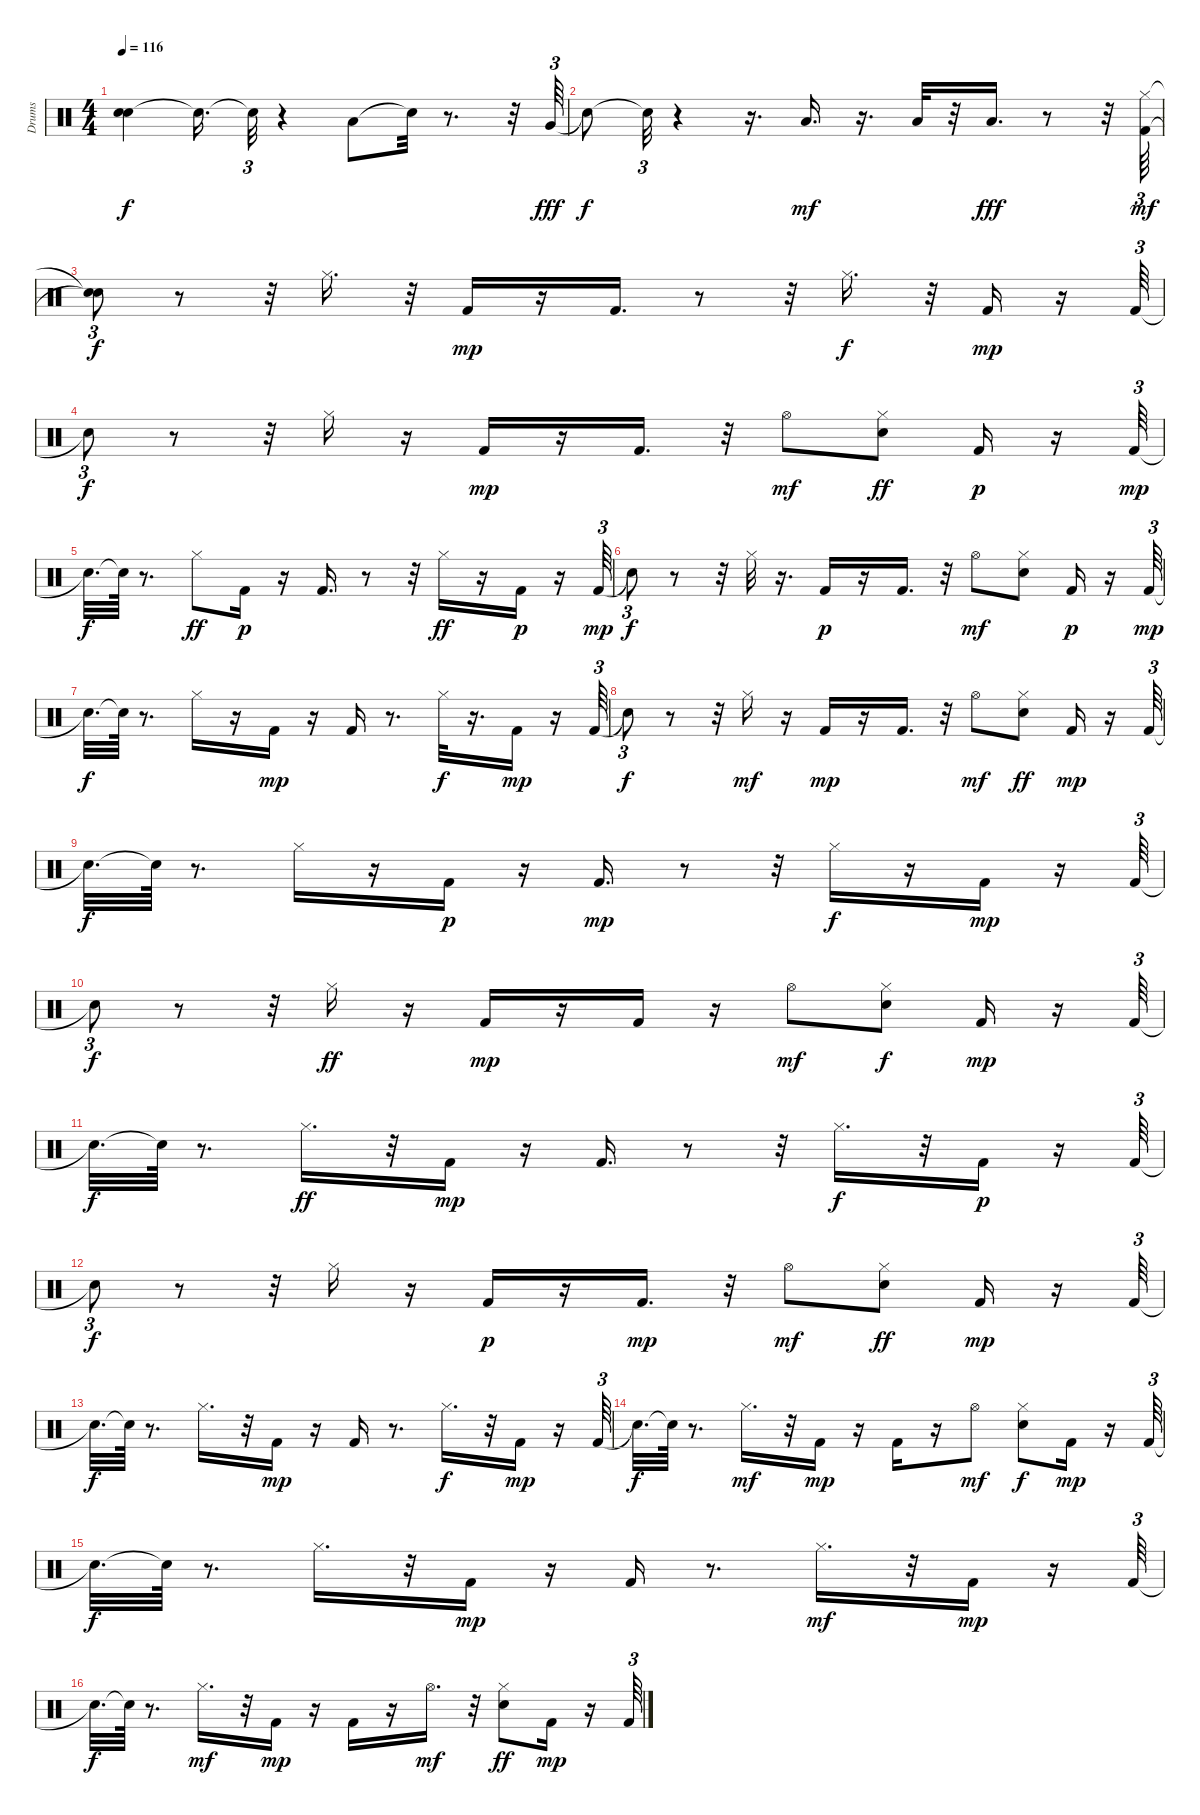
\track ("Drums" "Drums") {instrument percussion}
\staff {score}
\articulation defaults
\ts (4 4)
\tempo 116
\clef neutral
\ks c
("Snare (hit)"{t} "Snare (hit)"{t}).4{dy f} "Snare (hit)"{t}.16{d} "Snare (hit)"{t}.32{tu (3 2)} r.4 "Low Tom (hit)".8 "Snare (hit)"{t}.32 r.8{d} r.32 "Very Low Tom (hit)".64{tu (3 2) dy fff} |
"Snare (hit)"{t}.8{dy f} "Snare (hit)"{t}.32{tu (3 2)} r.4 r.16{d} "Low Floor Tom (hit)".16{d dy mf} r.16{d} "Low Floor Tom (hit)".32 r.32 "Low Floor Tom (hit)".16{d dy fff} r.8 r.32 ("Kick (hit) 2" "Hi-Hat (closed)").64{tu (3 2) dy mf} |
("Snare (hit)"{t} "Snare (hit)"{t}).8{tu (3 2) dy f} r.8 r.32 "Hi-Hat (closed)".16{d} r.32 "Kick (hit) 2".16{dy mp} r.16 "Kick (hit) 2".16{d} r.8 r.32 "Hi-Hat (closed)".16{d dy f} r.32 "Kick (hit) 2".16{dy mp} r.16 "Kick (hit) 2".64{tu (3 2)} |
"Snare (hit)"{t}.8{tu (3 2) dy f} r.8 r.32 "Hi-Hat (closed)".16 r.16 "Kick (hit) 2".16{dy mp} r.16 "Kick (hit) 2".16{d} r.32 "Hi-Hat (open)".8{dy mf} ("Electric Snare (hit)" "Hi-Hat (closed)").8{dy ff} "Kick (hit) 2".16{dy p} r.16 "Kick (hit) 2".64{tu (3 2) dy mp} |
"Snare (hit)"{t}.32{d dy f} "Snare (hit)"{t}.64 r.8{d} "Hi-Hat (closed)".8{dy ff} "Kick (hit) 2".16{dy p} r.16 "Kick (hit) 2".16{d} r.8 r.32 "Hi-Hat (closed)".16{dy ff} r.16 "Kick (hit) 2".16{dy p} r.16 "Kick (hit) 2".64{tu (3 2) dy mp} |
"Snare (hit)"{t}.8{tu (3 2) dy f} r.8 r.32 "Hi-Hat (closed)".32 r.16{d} "Kick (hit) 2".16{dy p} r.16 "Kick (hit) 2".16{d} r.32 "Hi-Hat (open)".8{dy mf} ("Electric Snare (hit)" "Hi-Hat (closed)").8 "Kick (hit) 2".16{dy p} r.16 "Kick (hit) 2".64{tu (3 2) dy mp} |
"Snare (hit)"{t}.32{d dy f} "Snare (hit)"{t}.64 r.8{d} "Hi-Hat (closed)".16 r.16 "Kick (hit) 2".16{dy mp} r.16 "Kick (hit) 2".16 r.8{d} "Hi-Hat (closed)".32{dy f} r.16{d} "Kick (hit) 2".16{dy mp} r.16 "Kick (hit) 2".64{tu (3 2)} |
"Snare (hit)"{t}.8{tu (3 2) dy f} r.8 r.32 "Hi-Hat (closed)".16{dy mf} r.16 "Kick (hit) 2".16{dy mp} r.16 "Kick (hit) 2".16{d} r.32 "Hi-Hat (open)".8{dy mf} ("Hi-Hat (closed)" "Electric Snare (hit)").8{dy ff} "Kick (hit) 2".16{dy mp} r.16 "Kick (hit) 2".64{tu (3 2)} |
"Snare (hit)"{t}.32{d dy f} "Snare (hit)"{t}.64 r.8{d} "Hi-Hat (closed)".16 r.16 "Kick (hit) 2".16{dy p} r.16 "Kick (hit) 2".16{d dy mp} r.8 r.32 "Hi-Hat (closed)".16{dy f} r.16 "Kick (hit) 2".16{dy mp} r.16 "Kick (hit) 2".64{tu (3 2)} |
"Snare (hit)"{t}.8{tu (3 2) dy f} r.8 r.32 "Hi-Hat (closed)".16{dy ff} r.16 "Kick (hit) 2".16{dy mp} r.16 "Kick (hit) 2".16 r.16 "Hi-Hat (open)".8{dy mf} ("Hi-Hat (closed)" "Electric Snare (hit)").8{dy f} "Kick (hit) 2".16{dy mp} r.16 "Kick (hit) 2".64{tu (3 2)} |
"Snare (hit)"{t}.32{d dy f} "Snare (hit)"{t}.64 r.8{d} "Hi-Hat (closed)".16{d dy ff} r.32 "Kick (hit) 2".16{dy mp} r.16 "Kick (hit) 2".16{d} r.8 r.32 "Hi-Hat (closed)".16{d dy f} r.32 "Kick (hit) 2".16{dy p} r.16 "Kick (hit) 2".64{tu (3 2)} |
"Snare (hit)"{t}.8{tu (3 2) dy f} r.8 r.32 "Hi-Hat (closed)".16 r.16 "Kick (hit) 2".16{dy p} r.16 "Kick (hit) 2".16{d dy mp} r.32 "Hi-Hat (open)".8{dy mf} ("Hi-Hat (closed)" "Electric Snare (hit)").8{dy ff} "Kick (hit) 2".16{dy mp} r.16 "Kick (hit) 2".64{tu (3 2)} |
"Snare (hit)"{t}.32{d dy f} "Snare (hit)"{t}.64 r.8{d} "Hi-Hat (closed)".16{d} r.32 "Kick (hit) 2".16{dy mp} r.16 "Kick (hit) 2".16 r.8{d} "Hi-Hat (closed)".16{d dy f} r.32 "Kick (hit) 2".16{dy mp} r.16 "Kick (hit) 2".64{tu (3 2)} |
"Snare (hit)"{t}.32{d dy f} "Snare (hit)"{t}.64 r.8{d} "Hi-Hat (closed)".16{d dy mf} r.32 "Kick (hit) 2".16{dy mp} r.16 "Kick (hit) 2".16 r.16 "Hi-Hat (open)".8{dy mf} ("Hi-Hat (closed)" "Electric Snare (hit)").8{dy f} "Kick (hit) 2".16{dy mp} r.16 "Kick (hit) 2".64{tu (3 2)} |
"Snare (hit)"{t}.32{d dy f} "Snare (hit)"{t}.64 r.8{d} "Hi-Hat (closed)".16{d} r.32 "Kick (hit) 2".16{dy mp} r.16 "Kick (hit) 2".16 r.8{d} "Hi-Hat (closed)".16{d dy mf} r.32 "Kick (hit) 2".16{dy mp} r.16 "Kick (hit) 2".64{tu (3 2)} |
"Snare (hit)"{t}.32{d dy f} "Snare (hit)"{t}.64 r.8{d} "Hi-Hat (closed)".16{d dy mf} r.32 "Kick (hit) 2".16{dy mp} r.16 "Kick (hit) 2".16 r.16 "Hi-Hat (open)".16{d dy mf} r.32 ("Hi-Hat (closed)" "Electric Snare (hit)").8{dy ff} "Kick (hit) 2".16{dy mp} r.16 "Kick (hit) 2".64{tu (3 2)}
